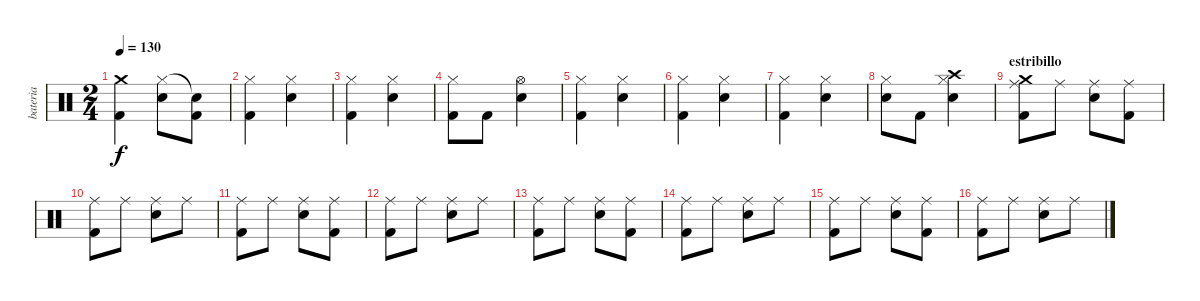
\track ("bateria" "bateria") {instrument percussion}
\staff {score}
\articulation defaults
\ts (2 4)
\tempo 130
\clef neutral
\ks c
("Crash medium (hit)" "Kick (hit) 2").4{dy f} ("Hi-Hat (closed)" "Electric Snare (hit)").8 ("Snare (hit)"{t} "Kick (hit) 2").8 |
("Hi-Hat (closed)" "Kick (hit) 2").4 ("Hi-Hat (closed)" "Electric Snare (hit)").4 |
("Hi-Hat (closed)" "Kick (hit) 2").4 ("Hi-Hat (closed)" "Electric Snare (hit)").4 |
("Hi-Hat (closed)" "Kick (hit) 2").8 "Kick (hit) 2".8 ("Hi-Hat (open)" "Electric Snare (hit)").4 |
("Hi-Hat (closed)" "Kick (hit) 2").4 ("Hi-Hat (closed)" "Electric Snare (hit)").4 |
("Hi-Hat (closed)" "Kick (hit) 2").4 ("Hi-Hat (closed)" "Electric Snare (hit)").4 |
("Hi-Hat (closed)" "Kick (hit) 2").4 ("Hi-Hat (closed)" "Electric Snare (hit)").4 |
("Hi-Hat (closed)" "Electric Snare (hit)").8 "Kick (hit) 2".8 ("Crash high (hit)" "Hi-Hat (closed)" "Electric Snare (hit)").4 |
\section ("" "estribillo")
("Crash medium (hit)" "Ride (middle)" "Kick (hit) 2").8 "Ride (middle)".8 ("Ride (middle)" "Electric Snare (hit)").8 ("Ride (middle)" "Kick (hit) 2").8 |
("Ride (middle)" "Kick (hit) 2").8 "Ride (middle)".8 ("Ride (middle)" "Electric Snare (hit)").8 "Ride (middle)".8 |
("Ride (middle)" "Kick (hit) 2").8 "Ride (middle)".8 ("Ride (middle)" "Electric Snare (hit)").8 ("Ride (middle)" "Kick (hit) 2").8 |
("Ride (middle)" "Kick (hit) 2").8 "Ride (middle)".8 ("Ride (middle)" "Electric Snare (hit)").8 "Ride (middle)".8 |
("Ride (middle)" "Kick (hit) 2").8 "Ride (middle)".8 ("Ride (middle)" "Electric Snare (hit)").8 ("Ride (middle)" "Kick (hit) 2").8 |
("Ride (middle)" "Kick (hit) 2").8 "Ride (middle)".8 ("Ride (middle)" "Electric Snare (hit)").8 "Ride (middle)".8 |
("Ride (middle)" "Kick (hit) 2").8 "Ride (middle)".8 ("Ride (middle)" "Electric Snare (hit)").8 ("Ride (middle)" "Kick (hit) 2").8 |
("Ride (middle)" "Kick (hit) 2").8 "Ride (middle)".8 ("Ride (middle)" "Electric Snare (hit)").8 "Ride (middle)".8
